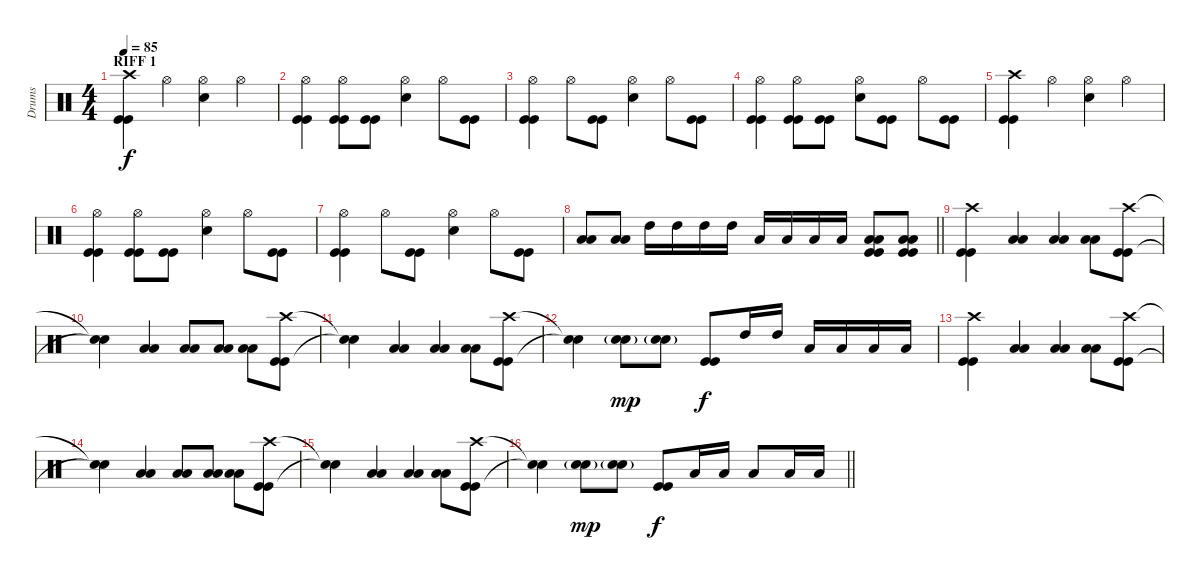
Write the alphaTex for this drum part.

\track ("Drums" "Drums") {instrument percussion}
\staff {score}
\articulation defaults
\ts (4 4)
\section ("" "RIFF 1")
\tempo 85
\clef neutral
\ks c
("Crash high (hit)" "Kick (hit)" "Kick (hit)").4{dy f} "Hi-Hat (open)".4 ("Hi-Hat (open)" "Snare (hit) 2").4 "Hi-Hat (open)".4 |
("Hi-Hat (open)" "Kick (hit)" "Kick (hit)").4 ("Hi-Hat (open)" "Kick (hit)" "Kick (hit)").8 ("Kick (hit)" "Kick (hit)").8 ("Hi-Hat (open)" "Snare (hit) 2").4 "Hi-Hat (open)".8 ("Kick (hit)" "Kick (hit)").8 |
("Hi-Hat (open)" "Kick (hit)" "Kick (hit)").4 "Hi-Hat (open)".8 ("Kick (hit)" "Kick (hit)").8 ("Hi-Hat (open)" "Snare (hit) 2").4 "Hi-Hat (open)".8 ("Kick (hit)" "Kick (hit)").8 |
("Hi-Hat (open)" "Kick (hit)" "Kick (hit)").4 ("Hi-Hat (open)" "Kick (hit)" "Kick (hit)").8 ("Kick (hit)" "Kick (hit)").8 ("Hi-Hat (open)" "Snare (hit) 2").8 ("Kick (hit)" "Kick (hit)").8 "Hi-Hat (open)".8 ("Kick (hit)" "Kick (hit)").8 |
("Crash high (hit)" "Kick (hit)" "Kick (hit)").4 "Hi-Hat (open)".4 ("Hi-Hat (open)" "Snare (hit) 2").4 "Hi-Hat (open)".4 |
("Hi-Hat (open)" "Kick (hit)" "Kick (hit)").4 ("Hi-Hat (open)" "Kick (hit)" "Kick (hit)").8 ("Kick (hit)" "Kick (hit)").8 ("Hi-Hat (open)" "Snare (hit) 2").4 "Hi-Hat (open)".8 ("Kick (hit)" "Kick (hit)").8 |
("Hi-Hat (open)" "Kick (hit)" "Kick (hit)").4 "Hi-Hat (open)".8 ("Kick (hit)" "Kick (hit)").8 ("Hi-Hat (open)" "Snare (hit) 2").4 "Hi-Hat (open)".8 ("Kick (hit)" "Kick (hit)").8 |
\barLineRight lightlight
("Low Floor Tom (hit)" "Low Tom (hit)").8 ("Low Floor Tom (hit)" "Low Tom (hit)").8 "High Tom (hit)".16 "High Tom (hit)".16 "High Tom (hit)".16 "High Tom (hit)".16 "Low Tom (hit)".16 "Low Tom (hit)".16 "Low Tom (hit)".16 "Low Tom (hit)".16 ("Low Tom (hit)" "Low Floor Tom (hit)" "Kick (hit)" "Kick (hit)").8 ("Low Tom (hit)" "Low Floor Tom (hit)" "Kick (hit)" "Kick (hit)").8 |
("Crash high (hit)" "Kick (hit)" "Kick (hit)").4 ("Low Floor Tom (hit)" "Low Tom (hit)").4 ("Low Floor Tom (hit)" "Low Tom (hit)").4 ("Low Tom (hit)" "Low Floor Tom (hit)").8 ("Crash high (hit)" "Kick (hit)" "Kick (hit)").8 |
("Snare (hit)"{t} "Snare (hit)"{t}).4 ("Low Floor Tom (hit)" "Low Tom (hit)").4 ("Low Floor Tom (hit)" "Low Tom (hit)").8 ("Low Floor Tom (hit)" "Low Tom (hit)").8 ("Low Floor Tom (hit)" "Low Tom (hit)").8 ("Crash high (hit)" "Kick (hit)" "Kick (hit)").8 |
("Snare (hit)"{t} "Snare (hit)"{t}).4 ("Low Floor Tom (hit)" "Low Tom (hit)").4 ("Low Floor Tom (hit)" "Low Tom (hit)").4 ("Low Floor Tom (hit)" "Low Tom (hit)").8 ("Crash high (hit)" "Kick (hit)" "Kick (hit)").8 |
("Snare (hit)"{t} "Snare (hit)"{t}).4 ("Snare (hit) 2"{g} "Snare (hit) 2").8{dy mp} ("Snare (hit) 2"{g} "Snare (hit) 2").8 ("Kick (hit)" "Kick (hit)").8{dy f} "High Tom (hit)".16 "High Tom (hit)".16 "Low Tom (hit)".16 "Low Tom (hit)".16 "Low Floor Tom (hit)".16 "Low Floor Tom (hit)".16 |
("Crash high (hit)" "Kick (hit)" "Kick (hit)").4 ("Low Floor Tom (hit)" "Low Tom (hit)").4 ("Low Floor Tom (hit)" "Low Tom (hit)").4 ("Low Tom (hit)" "Low Floor Tom (hit)").8 ("Crash high (hit)" "Kick (hit)" "Kick (hit)").8 |
("Snare (hit)"{t} "Snare (hit)"{t}).4 ("Low Floor Tom (hit)" "Low Tom (hit)").4 ("Low Floor Tom (hit)" "Low Tom (hit)").8 ("Low Floor Tom (hit)" "Low Tom (hit)").8 ("Low Floor Tom (hit)" "Low Tom (hit)").8 ("Crash high (hit)" "Kick (hit)" "Kick (hit)").8 |
("Snare (hit)"{t} "Snare (hit)"{t}).4 ("Low Floor Tom (hit)" "Low Tom (hit)").4 ("Low Floor Tom (hit)" "Low Tom (hit)").4 ("Low Floor Tom (hit)" "Low Tom (hit)").8 ("Crash high (hit)" "Kick (hit)" "Kick (hit)").8 |
\barLineRight lightlight
("Snare (hit)"{t} "Snare (hit)"{t}).4 ("Snare (hit) 2"{g} "Snare (hit) 2").8{dy mp} ("Snare (hit) 2"{g} "Snare (hit) 2").8 ("Kick (hit)" "Kick (hit)").8{dy f} "Low Tom (hit)".16 "Low Tom (hit)".16 "Low Tom (hit)".8 "Low Floor Tom (hit)".16 "Low Floor Tom (hit)".16
